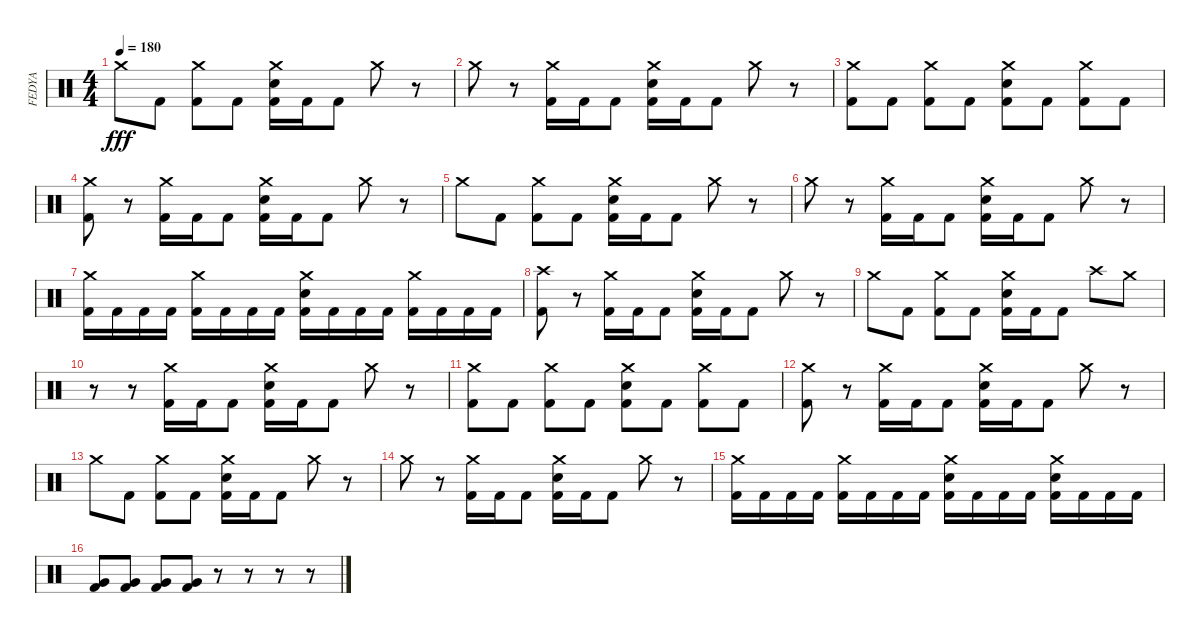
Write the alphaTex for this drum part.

\track ("FEDYA" "FEDYA") {instrument percussion}
\staff {score}
\articulation defaults
\ts (4 4)
\tempo 180
\clef neutral
\ks c "Crash medium (hit)".8{dy fff} "Kick (hit) 2".8
("Crash medium (hit)" "Kick (hit) 2").8 "Kick (hit) 2".8 ("Crash medium (hit)" "Snare (hit) 2" "Kick (hit) 2").16 "Kick (hit) 2".16 "Kick (hit) 2".8 "Crash medium (hit)".8 r.8 |
"Crash medium (hit)".8 r.8 ("Crash medium (hit)" "Kick (hit) 2").16 "Kick (hit) 2".16 "Kick (hit) 2".8 ("Crash medium (hit)" "Snare (hit) 2" "Kick (hit) 2").16 "Kick (hit) 2".16 "Kick (hit) 2".8 "Crash medium (hit)".8 r.8 |
("Crash medium (hit)" "Kick (hit) 2").8 "Kick (hit) 2".8 ("Crash medium (hit)" "Kick (hit) 2").8 "Kick (hit) 2".8 ("Crash medium (hit)" "Snare (hit) 2" "Kick (hit) 2").8 "Kick (hit) 2".8 ("Crash medium (hit)" "Kick (hit) 2").8 "Kick (hit) 2".8 |
("Crash medium (hit)" "Kick (hit) 2").8 r.8 ("Crash medium (hit)" "Kick (hit) 2").16 "Kick (hit) 2".16 "Kick (hit) 2".8 ("Crash medium (hit)" "Snare (hit) 2" "Kick (hit) 2").16 "Kick (hit) 2".16 "Kick (hit) 2".8 "Crash medium (hit)".8 r.8 |
"Crash medium (hit)".8 "Kick (hit) 2".8 ("Crash medium (hit)" "Kick (hit) 2").8 "Kick (hit) 2".8 ("Crash medium (hit)" "Snare (hit) 2" "Kick (hit) 2").16 "Kick (hit) 2".16 "Kick (hit) 2".8 "Crash medium (hit)".8 r.8 |
"Crash medium (hit)".8 r.8 ("Crash medium (hit)" "Kick (hit) 2").16 "Kick (hit) 2".16 "Kick (hit) 2".8 ("Crash medium (hit)" "Snare (hit) 2" "Kick (hit) 2").16 "Kick (hit) 2".16 "Kick (hit) 2".8 "Crash medium (hit)".8 r.8 |
("Crash medium (hit)" "Kick (hit) 2").16 "Kick (hit) 2".16 "Kick (hit) 2".16 "Kick (hit) 2".16 ("Crash medium (hit)" "Kick (hit) 2").16 "Kick (hit) 2".16 "Kick (hit) 2".16 "Kick (hit) 2".16 ("Crash medium (hit)" "Snare (hit) 2" "Kick (hit) 2").16 "Kick (hit) 2".16 "Kick (hit) 2".16 "Kick (hit) 2".16 ("Crash medium (hit)" "Kick (hit) 2").16 "Kick (hit) 2".16 "Kick (hit) 2".16 "Kick (hit) 2".16 |
("Crash high (hit)" "Kick (hit) 2").8 r.8 ("Crash medium (hit)" "Kick (hit) 2").16 "Kick (hit) 2".16 "Kick (hit) 2".8 ("Crash medium (hit)" "Snare (hit) 2" "Kick (hit) 2").16 "Kick (hit) 2".16 "Kick (hit) 2".8 "Crash medium (hit)".8 r.8 |
"Crash medium (hit)".8 "Kick (hit) 2".8 ("Crash medium (hit)" "Kick (hit) 2").8 "Kick (hit) 2".8 ("Crash medium (hit)" "Snare (hit) 2" "Kick (hit) 2").16 "Kick (hit) 2".16 "Kick (hit) 2".8 "Crash high (hit)".8 "Crash medium (hit)".8 |
r.8 r.8 ("Crash medium (hit)" "Kick (hit) 2").16 "Kick (hit) 2".16 "Kick (hit) 2".8 ("Crash medium (hit)" "Snare (hit) 2" "Kick (hit) 2").16 "Kick (hit) 2".16 "Kick (hit) 2".8 "Crash medium (hit)".8 r.8 |
("Crash medium (hit)" "Kick (hit) 2").8 "Kick (hit) 2".8 ("Crash medium (hit)" "Kick (hit) 2").8 "Kick (hit) 2".8 ("Crash medium (hit)" "Snare (hit) 2" "Kick (hit) 2").8 "Kick (hit) 2".8 ("Crash medium (hit)" "Kick (hit) 2").8 "Kick (hit) 2".8 |
("Crash medium (hit)" "Kick (hit) 2").8 r.8 ("Crash medium (hit)" "Kick (hit) 2").16 "Kick (hit) 2".16 "Kick (hit) 2".8 ("Crash medium (hit)" "Snare (hit) 2" "Kick (hit) 2").16 "Kick (hit) 2".16 "Kick (hit) 2".8 "Crash medium (hit)".8 r.8 |
"Crash medium (hit)".8 "Kick (hit) 2".8 ("Crash medium (hit)" "Kick (hit) 2").8 "Kick (hit) 2".8 ("Crash medium (hit)" "Snare (hit) 2" "Kick (hit) 2").16 "Kick (hit) 2".16 "Kick (hit) 2".8 "Crash medium (hit)".8 r.8 |
"Crash medium (hit)".8 r.8 ("Crash medium (hit)" "Kick (hit) 2").16 "Kick (hit) 2".16 "Kick (hit) 2".8 ("Crash medium (hit)" "Snare (hit) 2" "Kick (hit) 2").16 "Kick (hit) 2".16 "Kick (hit) 2".8 "Crash medium (hit)".8 r.8 |
("Crash medium (hit)" "Kick (hit) 2").16 "Kick (hit) 2".16 "Kick (hit) 2".16 "Kick (hit) 2".16 ("Crash medium (hit)" "Kick (hit) 2").16 "Kick (hit) 2".16 "Kick (hit) 2".16 "Kick (hit) 2".16 ("Crash medium (hit)" "Snare (hit) 2" "Kick (hit) 2").16 "Kick (hit) 2".16 "Kick (hit) 2".16 "Kick (hit) 2".16 ("Crash medium (hit)" "Snare (hit) 2" "Kick (hit) 2").16 "Kick (hit) 2".16 "Kick (hit) 2".16 "Kick (hit) 2".16 |
("Very Low Tom (hit)" "Kick (hit) 2").8 ("Very Low Tom (hit)" "Kick (hit) 2").8 ("Very Low Tom (hit)" "Kick (hit) 2").8 ("Very Low Tom (hit)" "Kick (hit) 2").8 r.8 r.8 r.8 r.8
